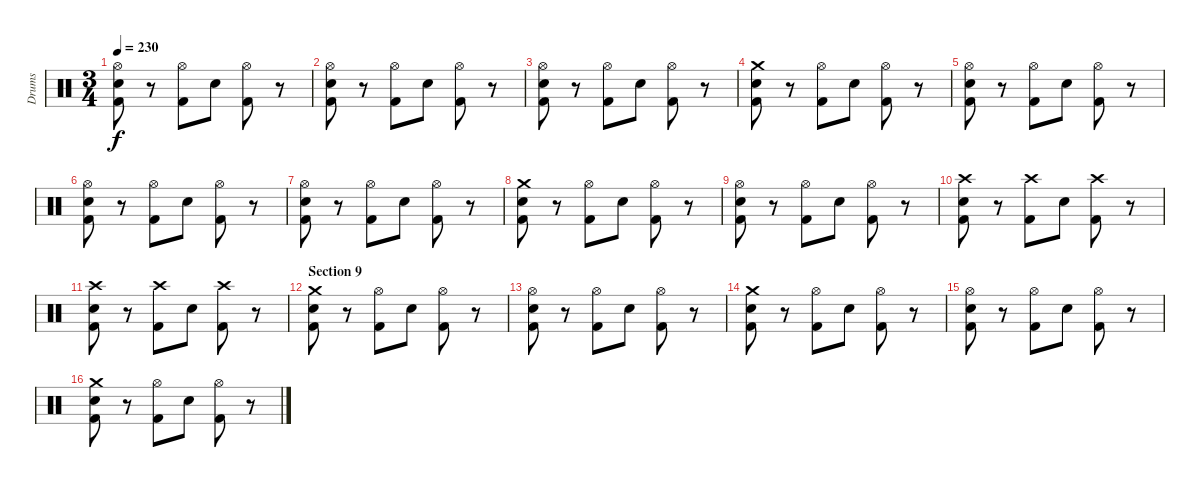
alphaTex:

\track ("Drums" "Drums") {instrument percussion}
\staff {score}
\articulation defaults
\ts (3 4)
\tempo 230
\clef neutral
\ks c
("Hi-Hat (open)" "Electric Snare (hit)" "Kick (hit) 2").8{dy f} r.8 ("Hi-Hat (open)" "Kick (hit) 2").8 "Electric Snare (hit)".8 ("Hi-Hat (open)" "Kick (hit) 2").8 r.8 |
("Hi-Hat (open)" "Electric Snare (hit)" "Kick (hit) 2").8 r.8 ("Hi-Hat (open)" "Kick (hit) 2").8 "Electric Snare (hit)".8 ("Hi-Hat (open)" "Kick (hit) 2").8 r.8 |
("Hi-Hat (open)" "Electric Snare (hit)" "Kick (hit) 2").8 r.8 ("Hi-Hat (open)" "Kick (hit) 2").8 "Electric Snare (hit)".8 ("Hi-Hat (open)" "Kick (hit) 2").8 r.8 |
("Crash medium (hit)" "Electric Snare (hit)" "Kick (hit) 2").8 r.8 ("Hi-Hat (open)" "Kick (hit) 2").8 "Electric Snare (hit)".8 ("Hi-Hat (open)" "Kick (hit) 2").8 r.8 |
("Hi-Hat (open)" "Electric Snare (hit)" "Kick (hit) 2").8 r.8 ("Hi-Hat (open)" "Kick (hit) 2").8 "Electric Snare (hit)".8 ("Hi-Hat (open)" "Kick (hit) 2").8 r.8 |
("Hi-Hat (open)" "Electric Snare (hit)" "Kick (hit) 2").8 r.8 ("Hi-Hat (open)" "Kick (hit) 2").8 "Electric Snare (hit)".8 ("Hi-Hat (open)" "Kick (hit) 2").8 r.8 |
("Hi-Hat (open)" "Electric Snare (hit)" "Kick (hit) 2").8 r.8 ("Hi-Hat (open)" "Kick (hit) 2").8 "Electric Snare (hit)".8 ("Hi-Hat (open)" "Kick (hit) 2").8 r.8 |
("Crash medium (hit)" "Electric Snare (hit)" "Kick (hit) 2").8 r.8 ("Hi-Hat (open)" "Kick (hit) 2").8 "Electric Snare (hit)".8 ("Hi-Hat (open)" "Kick (hit) 2").8 r.8 |
("Hi-Hat (open)" "Electric Snare (hit)" "Kick (hit) 2").8 r.8 ("Hi-Hat (open)" "Kick (hit) 2").8 "Electric Snare (hit)".8 ("Hi-Hat (open)" "Kick (hit) 2").8 r.8 |
("Crash high (hit)" "Electric Snare (hit)" "Kick (hit) 2").8 r.8 ("Crash high (hit)" "Kick (hit) 2").8 "Electric Snare (hit)".8 ("Crash high (hit)" "Kick (hit) 2").8 r.8 |
("Crash high (hit)" "Electric Snare (hit)" "Kick (hit) 2").8 r.8 ("Crash high (hit)" "Kick (hit) 2").8 "Electric Snare (hit)".8 ("Crash high (hit)" "Kick (hit) 2").8 r.8 |
\section ("" "Section 9")
("Crash medium (hit)" "Electric Snare (hit)" "Kick (hit) 2").8 r.8 ("Hi-Hat (open)" "Kick (hit) 2").8 "Electric Snare (hit)".8 ("Hi-Hat (open)" "Kick (hit) 2").8 r.8 |
("Hi-Hat (open)" "Electric Snare (hit)" "Kick (hit) 2").8 r.8 ("Hi-Hat (open)" "Kick (hit) 2").8 "Electric Snare (hit)".8 ("Hi-Hat (open)" "Kick (hit) 2").8 r.8 |
("Crash medium (hit)" "Electric Snare (hit)" "Kick (hit) 2").8 r.8 ("Hi-Hat (open)" "Kick (hit) 2").8 "Electric Snare (hit)".8 ("Hi-Hat (open)" "Kick (hit) 2").8 r.8 |
("Hi-Hat (open)" "Electric Snare (hit)" "Kick (hit) 2").8 r.8 ("Hi-Hat (open)" "Kick (hit) 2").8 "Electric Snare (hit)".8 ("Hi-Hat (open)" "Kick (hit) 2").8 r.8 |
("Crash medium (hit)" "Electric Snare (hit)" "Kick (hit) 2").8 r.8 ("Hi-Hat (open)" "Kick (hit) 2").8 "Electric Snare (hit)".8 ("Hi-Hat (open)" "Kick (hit) 2").8 r.8
